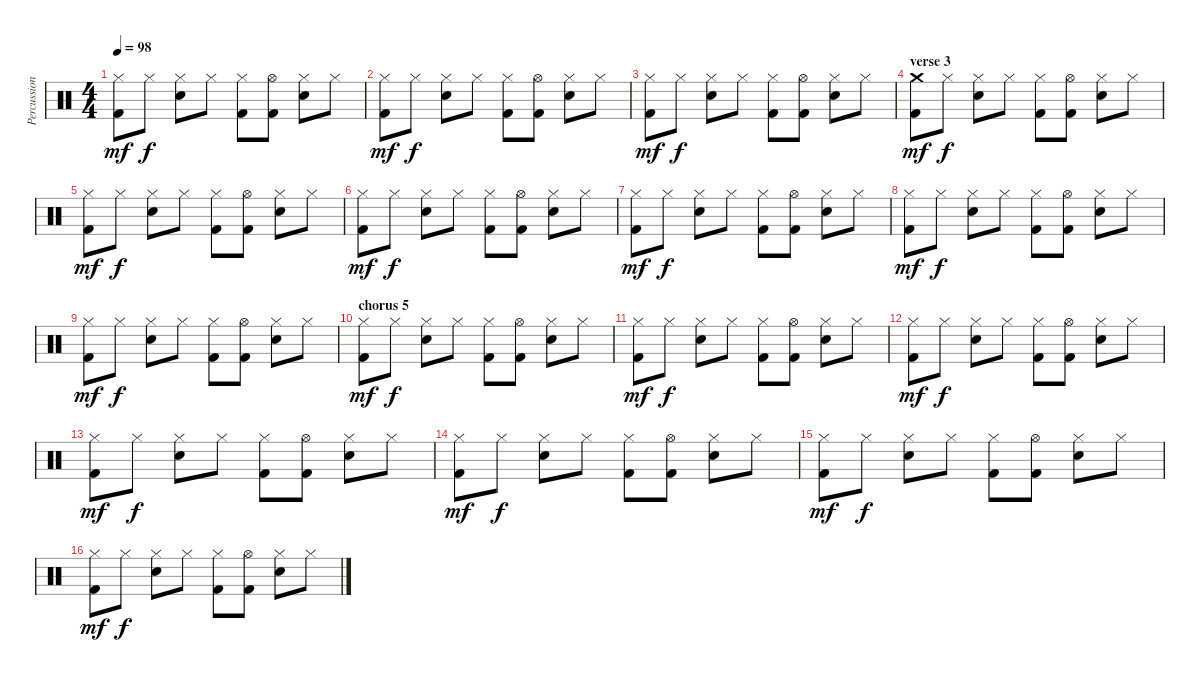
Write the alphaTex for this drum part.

\track ("Percussion" "Percussion") {instrument percussion}
\staff {score}
\articulation defaults
\ts (4 4)
\tempo 98
\clef neutral
\ks c
("Hi-Hat (closed)" "Kick (hit) 2").8{dy mf} "Hi-Hat (closed)".8{dy f} ("Hi-Hat (closed)" "Snare (hit) 2").8 "Hi-Hat (closed)".8 ("Hi-Hat (closed)" "Kick (hit) 2").8 ("Hi-Hat (open)" "Kick (hit) 2").8 ("Hi-Hat (closed)" "Snare (hit) 2").8 "Hi-Hat (closed)".8 |
("Hi-Hat (closed)" "Kick (hit) 2").8{dy mf} "Hi-Hat (closed)".8{dy f} ("Hi-Hat (closed)" "Snare (hit) 2").8 "Hi-Hat (closed)".8 ("Hi-Hat (closed)" "Kick (hit) 2").8 ("Hi-Hat (open)" "Kick (hit) 2").8 ("Hi-Hat (closed)" "Snare (hit) 2").8 "Hi-Hat (closed)".8 |
("Hi-Hat (closed)" "Kick (hit) 2").8{dy mf} "Hi-Hat (closed)".8{dy f} ("Hi-Hat (closed)" "Snare (hit) 2").8 "Hi-Hat (closed)".8 ("Hi-Hat (closed)" "Kick (hit) 2").8 ("Hi-Hat (open)" "Kick (hit) 2").8 ("Hi-Hat (closed)" "Snare (hit) 2").8 "Hi-Hat (closed)".8 |
\section ("" "verse 3")
("Crash medium (hit)" "Kick (hit) 2").8{dy mf} "Hi-Hat (closed)".8{dy f} ("Hi-Hat (closed)" "Snare (hit) 2").8 "Hi-Hat (closed)".8 ("Hi-Hat (closed)" "Kick (hit) 2").8 ("Hi-Hat (open)" "Kick (hit) 2").8 ("Hi-Hat (closed)" "Snare (hit) 2").8 "Hi-Hat (closed)".8 |
("Hi-Hat (closed)" "Kick (hit) 2").8{dy mf} "Hi-Hat (closed)".8{dy f} ("Hi-Hat (closed)" "Snare (hit) 2").8 "Hi-Hat (closed)".8 ("Hi-Hat (closed)" "Kick (hit) 2").8 ("Hi-Hat (open)" "Kick (hit) 2").8 ("Hi-Hat (closed)" "Snare (hit) 2").8 "Hi-Hat (closed)".8 |
("Hi-Hat (closed)" "Kick (hit) 2").8{dy mf} "Hi-Hat (closed)".8{dy f} ("Hi-Hat (closed)" "Snare (hit) 2").8 "Hi-Hat (closed)".8 ("Hi-Hat (closed)" "Kick (hit) 2").8 ("Hi-Hat (open)" "Kick (hit) 2").8 ("Hi-Hat (closed)" "Snare (hit) 2").8 "Hi-Hat (closed)".8 |
("Hi-Hat (closed)" "Kick (hit) 2").8{dy mf} "Hi-Hat (closed)".8{dy f} ("Hi-Hat (closed)" "Snare (hit) 2").8 "Hi-Hat (closed)".8 ("Hi-Hat (closed)" "Kick (hit) 2").8 ("Hi-Hat (open)" "Kick (hit) 2").8 ("Hi-Hat (closed)" "Snare (hit) 2").8 "Hi-Hat (closed)".8 |
("Hi-Hat (closed)" "Kick (hit) 2").8{dy mf} "Hi-Hat (closed)".8{dy f} ("Hi-Hat (closed)" "Snare (hit) 2").8 "Hi-Hat (closed)".8 ("Hi-Hat (closed)" "Kick (hit) 2").8 ("Hi-Hat (open)" "Kick (hit) 2").8 ("Hi-Hat (closed)" "Snare (hit) 2").8 "Hi-Hat (closed)".8 |
("Hi-Hat (closed)" "Kick (hit) 2").8{dy mf} "Hi-Hat (closed)".8{dy f} ("Hi-Hat (closed)" "Snare (hit) 2").8 "Hi-Hat (closed)".8 ("Hi-Hat (closed)" "Kick (hit) 2").8 ("Hi-Hat (open)" "Kick (hit) 2").8 ("Hi-Hat (closed)" "Snare (hit) 2").8 "Hi-Hat (closed)".8 |
\section ("" "chorus 5")
("Hi-Hat (closed)" "Kick (hit) 2").8{dy mf} "Hi-Hat (closed)".8{dy f} ("Hi-Hat (closed)" "Snare (hit) 2").8 "Hi-Hat (closed)".8 ("Hi-Hat (closed)" "Kick (hit) 2").8 ("Hi-Hat (open)" "Kick (hit) 2").8 ("Hi-Hat (closed)" "Snare (hit) 2").8 "Hi-Hat (closed)".8 |
("Hi-Hat (closed)" "Kick (hit) 2").8{dy mf} "Hi-Hat (closed)".8{dy f} ("Hi-Hat (closed)" "Snare (hit) 2").8 "Hi-Hat (closed)".8 ("Hi-Hat (closed)" "Kick (hit) 2").8 ("Hi-Hat (open)" "Kick (hit) 2").8 ("Hi-Hat (closed)" "Snare (hit) 2").8 "Hi-Hat (closed)".8 |
("Hi-Hat (closed)" "Kick (hit) 2").8{dy mf} "Hi-Hat (closed)".8{dy f} ("Hi-Hat (closed)" "Snare (hit) 2").8 "Hi-Hat (closed)".8 ("Hi-Hat (closed)" "Kick (hit) 2").8 ("Hi-Hat (open)" "Kick (hit) 2").8 ("Hi-Hat (closed)" "Snare (hit) 2").8 "Hi-Hat (closed)".8 |
("Hi-Hat (closed)" "Kick (hit) 2").8{dy mf} "Hi-Hat (closed)".8{dy f} ("Hi-Hat (closed)" "Snare (hit) 2").8 "Hi-Hat (closed)".8 ("Hi-Hat (closed)" "Kick (hit) 2").8 ("Hi-Hat (open)" "Kick (hit) 2").8 ("Hi-Hat (closed)" "Snare (hit) 2").8 "Hi-Hat (closed)".8 |
("Hi-Hat (closed)" "Kick (hit) 2").8{dy mf} "Hi-Hat (closed)".8{dy f} ("Hi-Hat (closed)" "Snare (hit) 2").8 "Hi-Hat (closed)".8 ("Hi-Hat (closed)" "Kick (hit) 2").8 ("Hi-Hat (open)" "Kick (hit) 2").8 ("Hi-Hat (closed)" "Snare (hit) 2").8 "Hi-Hat (closed)".8 |
("Hi-Hat (closed)" "Kick (hit) 2").8{dy mf} "Hi-Hat (closed)".8{dy f} ("Hi-Hat (closed)" "Snare (hit) 2").8 "Hi-Hat (closed)".8 ("Hi-Hat (closed)" "Kick (hit) 2").8 ("Hi-Hat (open)" "Kick (hit) 2").8 ("Hi-Hat (closed)" "Snare (hit) 2").8 "Hi-Hat (closed)".8 |
("Hi-Hat (closed)" "Kick (hit) 2").8{dy mf} "Hi-Hat (closed)".8{dy f} ("Hi-Hat (closed)" "Snare (hit) 2").8 "Hi-Hat (closed)".8 ("Hi-Hat (closed)" "Kick (hit) 2").8 ("Hi-Hat (open)" "Kick (hit) 2").8 ("Hi-Hat (closed)" "Snare (hit) 2").8 "Hi-Hat (closed)".8
